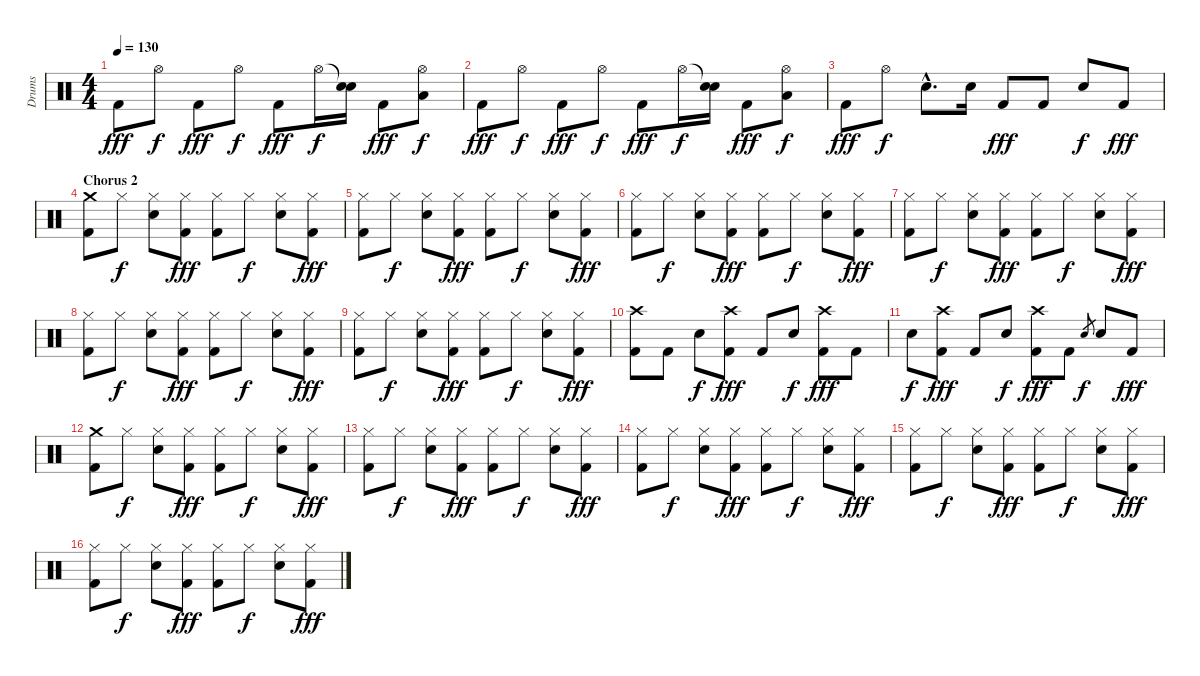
\track ("Drums" "Drums") {instrument percussion}
\staff {score}
\articulation defaults
\ts (4 4)
\tempo 130
\clef neutral
\ks c "Kick (hit) 2".8{dy fff} "Hi-Hat (open)".8{dy f} "Kick (hit) 2".8{dy fff} "Hi-Hat (open)".8{dy f} "Kick (hit) 2".8{dy fff} "Hi-Hat (open)".16{dy f}
("Snare (hit)"{t} "Snare (hit) 2").16 "Kick (hit) 2".8{dy fff} ("Hi-Hat (open)" "Low Tom (hit)").8{dy f} |
"Kick (hit) 2".8{dy fff} "Hi-Hat (open)".8{dy f} "Kick (hit) 2".8{dy fff} "Hi-Hat (open)".8{dy f} "Kick (hit) 2".8{dy fff} "Hi-Hat (open)".16{dy f} ("Snare (hit)"{t} "Snare (hit) 2").16 "Kick (hit) 2".8{dy fff} ("Hi-Hat (open)" "Low Tom (hit)").8{dy f} |
"Kick (hit) 2".8{dy fff} "Hi-Hat (open)".8{dy f} "Snare (hit) 2"{hac}.8{d} "Snare (hit) 2".16 "Kick (hit) 2".8{dy fff} "Kick (hit) 2".8 "Snare (hit) 2".8{dy f} "Kick (hit) 2".8{dy fff} |
\section ("" "Chorus 2")
("Crash medium (hit)" "Kick (hit) 2").8 "Hi-Hat (closed)".8{dy f} ("Hi-Hat (closed)" "Snare (hit) 2").8 ("Hi-Hat (closed)" "Kick (hit) 2").8{dy fff} ("Hi-Hat (closed)" "Kick (hit) 2").8 "Hi-Hat (closed)".8{dy f} ("Hi-Hat (closed)" "Snare (hit) 2").8 ("Hi-Hat (closed)" "Kick (hit) 2").8{dy fff} |
("Hi-Hat (closed)" "Kick (hit) 2").8 "Hi-Hat (closed)".8{dy f} ("Hi-Hat (closed)" "Snare (hit) 2").8 ("Hi-Hat (closed)" "Kick (hit) 2").8{dy fff} ("Hi-Hat (closed)" "Kick (hit) 2").8 "Hi-Hat (closed)".8{dy f} ("Hi-Hat (closed)" "Snare (hit) 2").8 ("Hi-Hat (closed)" "Kick (hit) 2").8{dy fff} |
("Hi-Hat (closed)" "Kick (hit) 2").8 "Hi-Hat (closed)".8{dy f} ("Hi-Hat (closed)" "Snare (hit) 2").8 ("Hi-Hat (closed)" "Kick (hit) 2").8{dy fff} ("Hi-Hat (closed)" "Kick (hit) 2").8 "Hi-Hat (closed)".8{dy f} ("Hi-Hat (closed)" "Snare (hit) 2").8 ("Hi-Hat (closed)" "Kick (hit) 2").8{dy fff} |
("Hi-Hat (closed)" "Kick (hit) 2").8 "Hi-Hat (closed)".8{dy f} ("Hi-Hat (closed)" "Snare (hit) 2").8 ("Hi-Hat (closed)" "Kick (hit) 2").8{dy fff} ("Hi-Hat (closed)" "Kick (hit) 2").8 "Hi-Hat (closed)".8{dy f} ("Hi-Hat (closed)" "Snare (hit) 2").8 ("Hi-Hat (closed)" "Kick (hit) 2").8{dy fff} |
("Hi-Hat (closed)" "Kick (hit) 2").8 "Hi-Hat (closed)".8{dy f} ("Hi-Hat (closed)" "Snare (hit) 2").8 ("Hi-Hat (closed)" "Kick (hit) 2").8{dy fff} ("Hi-Hat (closed)" "Kick (hit) 2").8 "Hi-Hat (closed)".8{dy f} ("Hi-Hat (closed)" "Snare (hit) 2").8 ("Hi-Hat (closed)" "Kick (hit) 2").8{dy fff} |
("Hi-Hat (closed)" "Kick (hit) 2").8 "Hi-Hat (closed)".8{dy f} ("Hi-Hat (closed)" "Snare (hit) 2").8 ("Hi-Hat (closed)" "Kick (hit) 2").8{dy fff} ("Hi-Hat (closed)" "Kick (hit) 2").8 "Hi-Hat (closed)".8{dy f} ("Hi-Hat (closed)" "Snare (hit) 2").8 ("Hi-Hat (closed)" "Kick (hit) 2").8{dy fff} |
("Crash high (hit)" "Kick (hit) 2").8 "Kick (hit) 2".8 "Snare (hit) 2".8{dy f} ("Crash high (hit)" "Kick (hit) 2").8{dy fff} "Kick (hit) 2".8 "Snare (hit) 2".8{dy f} ("Crash high (hit)" "Kick (hit) 2").8{dy fff} "Kick (hit) 2".8 |
"Snare (hit) 2".8{dy f} ("Crash high (hit)" "Kick (hit) 2").8{dy fff} "Kick (hit) 2".8 "Snare (hit) 2".8{dy f} ("Crash high (hit)" "Kick (hit) 2").8{dy fff} "Kick (hit) 2".8 "Snare (hit) 2".8{gr dy f} "Snare (hit) 2".8 "Kick (hit) 2".8{dy fff} |
("Crash medium (hit)" "Kick (hit) 2").8 "Hi-Hat (closed)".8{dy f} ("Hi-Hat (closed)" "Snare (hit) 2").8 ("Hi-Hat (closed)" "Kick (hit) 2").8{dy fff} ("Hi-Hat (closed)" "Kick (hit) 2").8 "Hi-Hat (closed)".8{dy f} ("Hi-Hat (closed)" "Snare (hit) 2").8 ("Hi-Hat (closed)" "Kick (hit) 2").8{dy fff} |
("Hi-Hat (closed)" "Kick (hit) 2").8 "Hi-Hat (closed)".8{dy f} ("Hi-Hat (closed)" "Snare (hit) 2").8 ("Hi-Hat (closed)" "Kick (hit) 2").8{dy fff} ("Hi-Hat (closed)" "Kick (hit) 2").8 "Hi-Hat (closed)".8{dy f} ("Hi-Hat (closed)" "Snare (hit) 2").8 ("Hi-Hat (closed)" "Kick (hit) 2").8{dy fff} |
("Hi-Hat (closed)" "Kick (hit) 2").8 "Hi-Hat (closed)".8{dy f} ("Hi-Hat (closed)" "Snare (hit) 2").8 ("Hi-Hat (closed)" "Kick (hit) 2").8{dy fff} ("Hi-Hat (closed)" "Kick (hit) 2").8 "Hi-Hat (closed)".8{dy f} ("Hi-Hat (closed)" "Snare (hit) 2").8 ("Hi-Hat (closed)" "Kick (hit) 2").8{dy fff} |
("Hi-Hat (closed)" "Kick (hit) 2").8 "Hi-Hat (closed)".8{dy f} ("Hi-Hat (closed)" "Snare (hit) 2").8 ("Hi-Hat (closed)" "Kick (hit) 2").8{dy fff} ("Hi-Hat (closed)" "Kick (hit) 2").8 "Hi-Hat (closed)".8{dy f} ("Hi-Hat (closed)" "Snare (hit) 2").8 ("Hi-Hat (closed)" "Kick (hit) 2").8{dy fff} |
("Hi-Hat (closed)" "Kick (hit) 2").8 "Hi-Hat (closed)".8{dy f} ("Hi-Hat (closed)" "Snare (hit) 2").8 ("Hi-Hat (closed)" "Kick (hit) 2").8{dy fff} ("Hi-Hat (closed)" "Kick (hit) 2").8 "Hi-Hat (closed)".8{dy f} ("Hi-Hat (closed)" "Snare (hit) 2").8 ("Hi-Hat (closed)" "Kick (hit) 2").8{dy fff}
